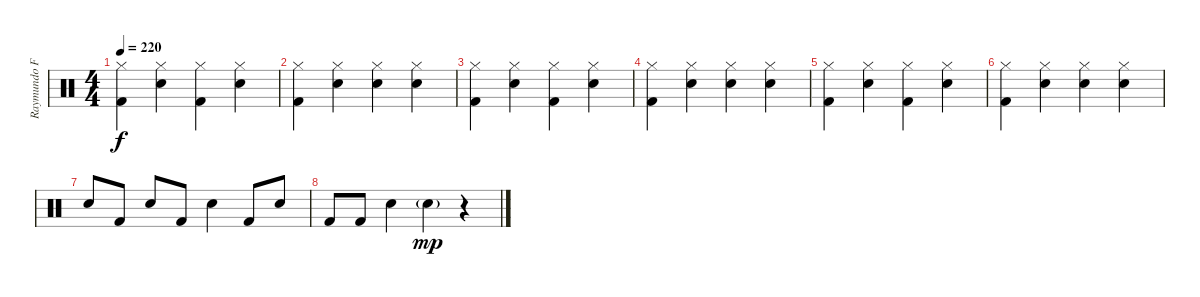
\track ("Raymundo Fajaro" "Raymundo F") {instrument percussion}
\staff {score}
\articulation defaults
\ts (4 4)
\tempo 220
\clef neutral
\ks c
("Kick (hit) 2" "Hi-Hat (closed)").4{dy f} ("Electric Snare (hit)" "Hi-Hat (closed)").4 ("Kick (hit) 2" "Hi-Hat (closed)").4 ("Electric Snare (hit)" "Hi-Hat (closed)").4 |
("Kick (hit) 2" "Hi-Hat (closed)").4 ("Electric Snare (hit)" "Hi-Hat (closed)").4 ("Electric Snare (hit)" "Hi-Hat (closed)").4 ("Electric Snare (hit)" "Hi-Hat (closed)").4 |
("Kick (hit) 2" "Hi-Hat (closed)").4 ("Electric Snare (hit)" "Hi-Hat (closed)").4 ("Kick (hit) 2" "Hi-Hat (closed)").4 ("Electric Snare (hit)" "Hi-Hat (closed)").4 |
("Kick (hit) 2" "Hi-Hat (closed)").4 ("Electric Snare (hit)" "Hi-Hat (closed)").4 ("Electric Snare (hit)" "Hi-Hat (closed)").4 ("Electric Snare (hit)" "Hi-Hat (closed)").4 |
("Kick (hit) 2" "Hi-Hat (closed)").4 ("Electric Snare (hit)" "Hi-Hat (closed)").4 ("Kick (hit) 2" "Hi-Hat (closed)").4 ("Electric Snare (hit)" "Hi-Hat (closed)").4 |
("Kick (hit) 2" "Hi-Hat (closed)").4 ("Electric Snare (hit)" "Hi-Hat (closed)").4 ("Electric Snare (hit)" "Hi-Hat (closed)").4 ("Electric Snare (hit)" "Hi-Hat (closed)").4 |
"Electric Snare (hit)".8 "Kick (hit) 2".8 "Electric Snare (hit)".8 "Kick (hit) 2".8 "Electric Snare (hit)".4 "Kick (hit) 2".8 "Electric Snare (hit)".8 |
"Kick (hit) 2".8 "Kick (hit) 2".8 "Electric Snare (hit)".4 "Electric Snare (hit)"{g}.4{dy mp} r.4
